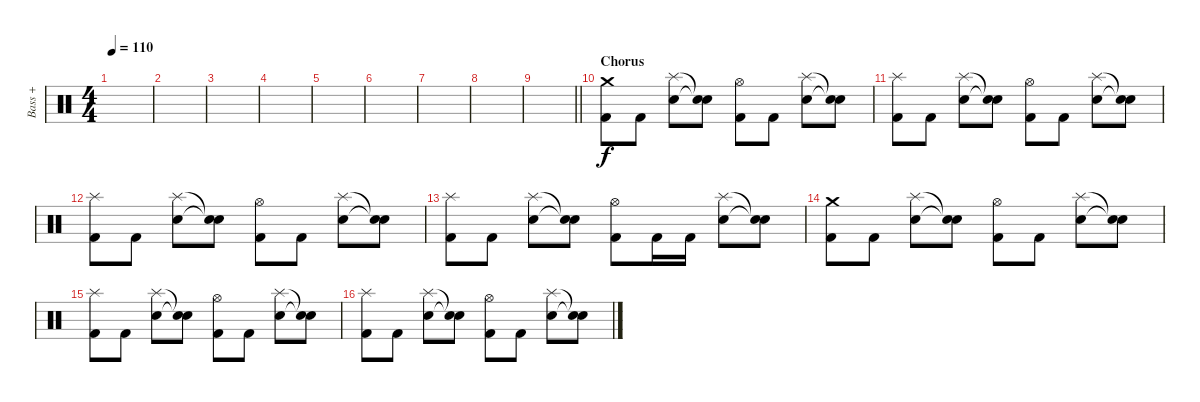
\track ("  Bass +" "  Bass +") {instrument percussion}
\staff {score}
\articulation defaults
\ts (4 4)
\tempo 110
\clef neutral
\ks c
|
|
|
|
|
|
|
|
\barLineRight lightlight
|
\section ("" "Chorus")
("Crash medium (hit)" "Kick (hit) 2").8 "Kick (hit) 2".8 ("Splash (hit)" "Snare (hit) 2").8 ("Snare (hit)"{t} "Snare (hit)"{t}).8 ("Hi-Hat (open)" "Kick (hit) 2").8 "Kick (hit) 2".8 ("Splash (hit)" "Snare (hit) 2").8 ("Snare (hit)"{t} "Snare (hit)"{t}).8 |
("Splash (hit)" "Kick (hit) 2").8 "Kick (hit) 2".8 ("Splash (hit)" "Snare (hit) 2").8 ("Snare (hit)"{t} "Snare (hit)"{t}).8 ("Hi-Hat (open)" "Kick (hit) 2").8 "Kick (hit) 2".8 ("Splash (hit)" "Snare (hit) 2").8 ("Snare (hit)"{t} "Snare (hit)"{t}).8 |
("Splash (hit)" "Kick (hit) 2").8 "Kick (hit) 2".8 ("Splash (hit)" "Snare (hit) 2").8 ("Snare (hit)"{t} "Snare (hit)"{t}).8 ("Hi-Hat (open)" "Kick (hit) 2").8 "Kick (hit) 2".8 ("Splash (hit)" "Snare (hit) 2").8 ("Snare (hit)"{t} "Snare (hit)"{t}).8 |
("Splash (hit)" "Kick (hit) 2").8 "Kick (hit) 2".8 ("Splash (hit)" "Snare (hit) 2").8 ("Snare (hit)"{t} "Snare (hit)"{t}).8 ("Hi-Hat (open)" "Kick (hit) 2").8 "Kick (hit) 2".16 "Kick (hit) 2".16 ("Splash (hit)" "Snare (hit) 2").8 ("Snare (hit)"{t} "Snare (hit)"{t}).8 |
("Crash medium (hit)" "Kick (hit) 2").8 "Kick (hit) 2".8 ("Splash (hit)" "Snare (hit) 2").8 ("Snare (hit)"{t} "Snare (hit)"{t}).8 ("Hi-Hat (open)" "Kick (hit) 2").8 "Kick (hit) 2".8 ("Splash (hit)" "Snare (hit) 2").8 ("Snare (hit)"{t} "Snare (hit)"{t}).8 |
("Splash (hit)" "Kick (hit) 2").8 "Kick (hit) 2".8 ("Splash (hit)" "Snare (hit) 2").8 ("Snare (hit)"{t} "Snare (hit)"{t}).8 ("Hi-Hat (open)" "Kick (hit) 2").8 "Kick (hit) 2".8 ("Splash (hit)" "Snare (hit) 2").8 ("Snare (hit)"{t} "Snare (hit)"{t}).8 |
("Splash (hit)" "Kick (hit) 2").8 "Kick (hit) 2".8 ("Splash (hit)" "Snare (hit) 2").8 ("Snare (hit)"{t} "Snare (hit)"{t}).8 ("Hi-Hat (open)" "Kick (hit) 2").8 "Kick (hit) 2".8 ("Splash (hit)" "Snare (hit) 2").8 ("Snare (hit)"{t} "Snare (hit)"{t}).8
